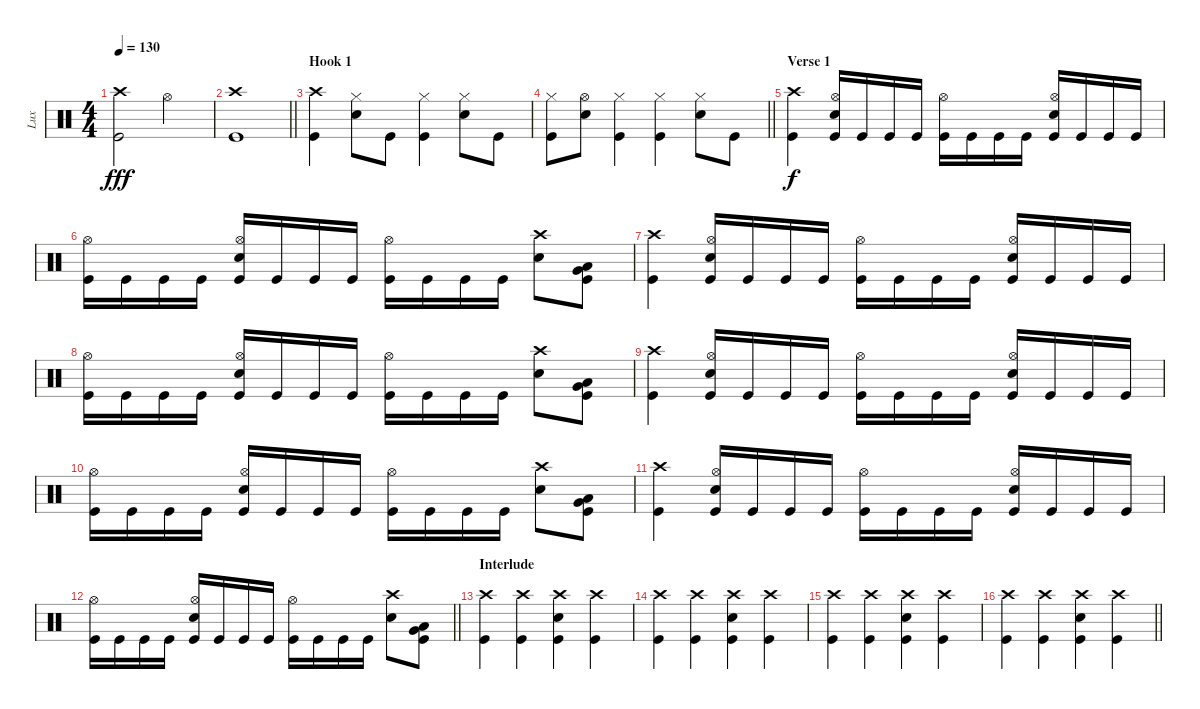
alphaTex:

\track ("Lux" "Lux") {instrument percussion}
\staff {score}
\articulation defaults
\ts (4 4)
\tempo 130
\clef neutral
\ks c
("Crash high (hit)" "Kick (hit)").2{dy fff} "Hi-Hat (open)".2 |
\barLineRight lightlight
("Crash high (hit)" "Kick (hit)").1 |
\section ("" "Hook 1")
("Crash high (hit)" "Kick (hit)").4 ("Hi-Hat (closed)" "Snare (hit) 2").8 "Kick (hit)".8 ("Hi-Hat (closed)" "Kick (hit)").4 ("Hi-Hat (closed)" "Snare (hit) 2").8 "Kick (hit)".8 |
\barLineRight lightlight
("Hi-Hat (closed)" "Kick (hit)").8 ("Hi-Hat (open)" "Snare (hit) 2").8 ("Hi-Hat (closed)" "Kick (hit)").4 ("Hi-Hat (closed)" "Kick (hit)").4 ("Hi-Hat (closed)" "Snare (hit) 2").8 "Kick (hit)".8 |
\section ("" "Verse 1")
("Crash high (hit)" "Kick (hit)").4{dy f} ("Hi-Hat (open)" "Snare (hit) 2" "Kick (hit)").16 "Kick (hit)".16 "Kick (hit)".16 "Kick (hit)".16 ("Hi-Hat (open)" "Kick (hit)").16 "Kick (hit)".16 "Kick (hit)".16 "Kick (hit)".16 ("Hi-Hat (open)" "Snare (hit) 2" "Kick (hit)").16 "Kick (hit)".16 "Kick (hit)".16 "Kick (hit)".16 |
("Hi-Hat (open)" "Kick (hit)").16 "Kick (hit)".16 "Kick (hit)".16 "Kick (hit)".16 ("Hi-Hat (open)" "Snare (hit) 2" "Kick (hit)").16 "Kick (hit)".16 "Kick (hit)".16 "Kick (hit)".16 ("Hi-Hat (open)" "Kick (hit)").16 "Kick (hit)".16 "Kick (hit)".16 "Kick (hit)".16 ("Crash high (hit)" "Snare (hit) 2").8 ("Very Low Tom (hit)" "Low Tom (hit)" "Kick (hit)").8 |
("Crash high (hit)" "Kick (hit)").4 ("Hi-Hat (open)" "Snare (hit) 2" "Kick (hit)").16 "Kick (hit)".16 "Kick (hit)".16 "Kick (hit)".16 ("Hi-Hat (open)" "Kick (hit)").16 "Kick (hit)".16 "Kick (hit)".16 "Kick (hit)".16 ("Hi-Hat (open)" "Snare (hit) 2" "Kick (hit)").16 "Kick (hit)".16 "Kick (hit)".16 "Kick (hit)".16 |
("Hi-Hat (open)" "Kick (hit)").16 "Kick (hit)".16 "Kick (hit)".16 "Kick (hit)".16 ("Hi-Hat (open)" "Snare (hit) 2" "Kick (hit)").16 "Kick (hit)".16 "Kick (hit)".16 "Kick (hit)".16 ("Hi-Hat (open)" "Kick (hit)").16 "Kick (hit)".16 "Kick (hit)".16 "Kick (hit)".16 ("Crash high (hit)" "Snare (hit) 2").8 ("Low Tom (hit)" "Very Low Tom (hit)" "Kick (hit)").8 |
("Crash high (hit)" "Kick (hit)").4 ("Hi-Hat (open)" "Snare (hit) 2" "Kick (hit)").16 "Kick (hit)".16 "Kick (hit)".16 "Kick (hit)".16 ("Hi-Hat (open)" "Kick (hit)").16 "Kick (hit)".16 "Kick (hit)".16 "Kick (hit)".16 ("Hi-Hat (open)" "Snare (hit) 2" "Kick (hit)").16 "Kick (hit)".16 "Kick (hit)".16 "Kick (hit)".16 |
("Hi-Hat (open)" "Kick (hit)").16 "Kick (hit)".16 "Kick (hit)".16 "Kick (hit)".16 ("Hi-Hat (open)" "Snare (hit) 2" "Kick (hit)").16 "Kick (hit)".16 "Kick (hit)".16 "Kick (hit)".16 ("Hi-Hat (open)" "Kick (hit)").16 "Kick (hit)".16 "Kick (hit)".16 "Kick (hit)".16 ("Crash high (hit)" "Snare (hit) 2").8 ("Very Low Tom (hit)" "Low Tom (hit)" "Kick (hit)").8 |
("Crash high (hit)" "Kick (hit)").4 ("Hi-Hat (open)" "Snare (hit) 2" "Kick (hit)").16 "Kick (hit)".16 "Kick (hit)".16 "Kick (hit)".16 ("Hi-Hat (open)" "Kick (hit)").16 "Kick (hit)".16 "Kick (hit)".16 "Kick (hit)".16 ("Hi-Hat (open)" "Snare (hit) 2" "Kick (hit)").16 "Kick (hit)".16 "Kick (hit)".16 "Kick (hit)".16 |
\barLineRight lightlight
("Hi-Hat (open)" "Kick (hit)").16 "Kick (hit)".16 "Kick (hit)".16 "Kick (hit)".16 ("Hi-Hat (open)" "Snare (hit) 2" "Kick (hit)").16 "Kick (hit)".16 "Kick (hit)".16 "Kick (hit)".16 ("Hi-Hat (open)" "Kick (hit)").16 "Kick (hit)".16 "Kick (hit)".16 "Kick (hit)".16 ("Crash high (hit)" "Snare (hit) 2").8 ("Low Tom (hit)" "Very Low Tom (hit)" "Kick (hit)").8 |
\section ("" "Interlude")
("Crash high (hit)" "Kick (hit)").4 ("Crash high (hit)" "Kick (hit)").4 ("Crash high (hit)" "Snare (hit) 2" "Kick (hit)").4 ("Crash high (hit)" "Kick (hit)").4 |
("Crash high (hit)" "Kick (hit)").4 ("Crash high (hit)" "Kick (hit)").4 ("Crash high (hit)" "Snare (hit) 2" "Kick (hit)").4 ("Crash high (hit)" "Kick (hit)").4 |
("Crash high (hit)" "Kick (hit)").4 ("Crash high (hit)" "Kick (hit)").4 ("Crash high (hit)" "Snare (hit) 2" "Kick (hit)").4 ("Crash high (hit)" "Kick (hit)").4 |
\barLineRight lightlight
("Crash high (hit)" "Kick (hit)").4 ("Crash high (hit)" "Kick (hit)").4 ("Crash high (hit)" "Snare (hit) 2" "Kick (hit)").4 ("Crash high (hit)" "Kick (hit)").4
